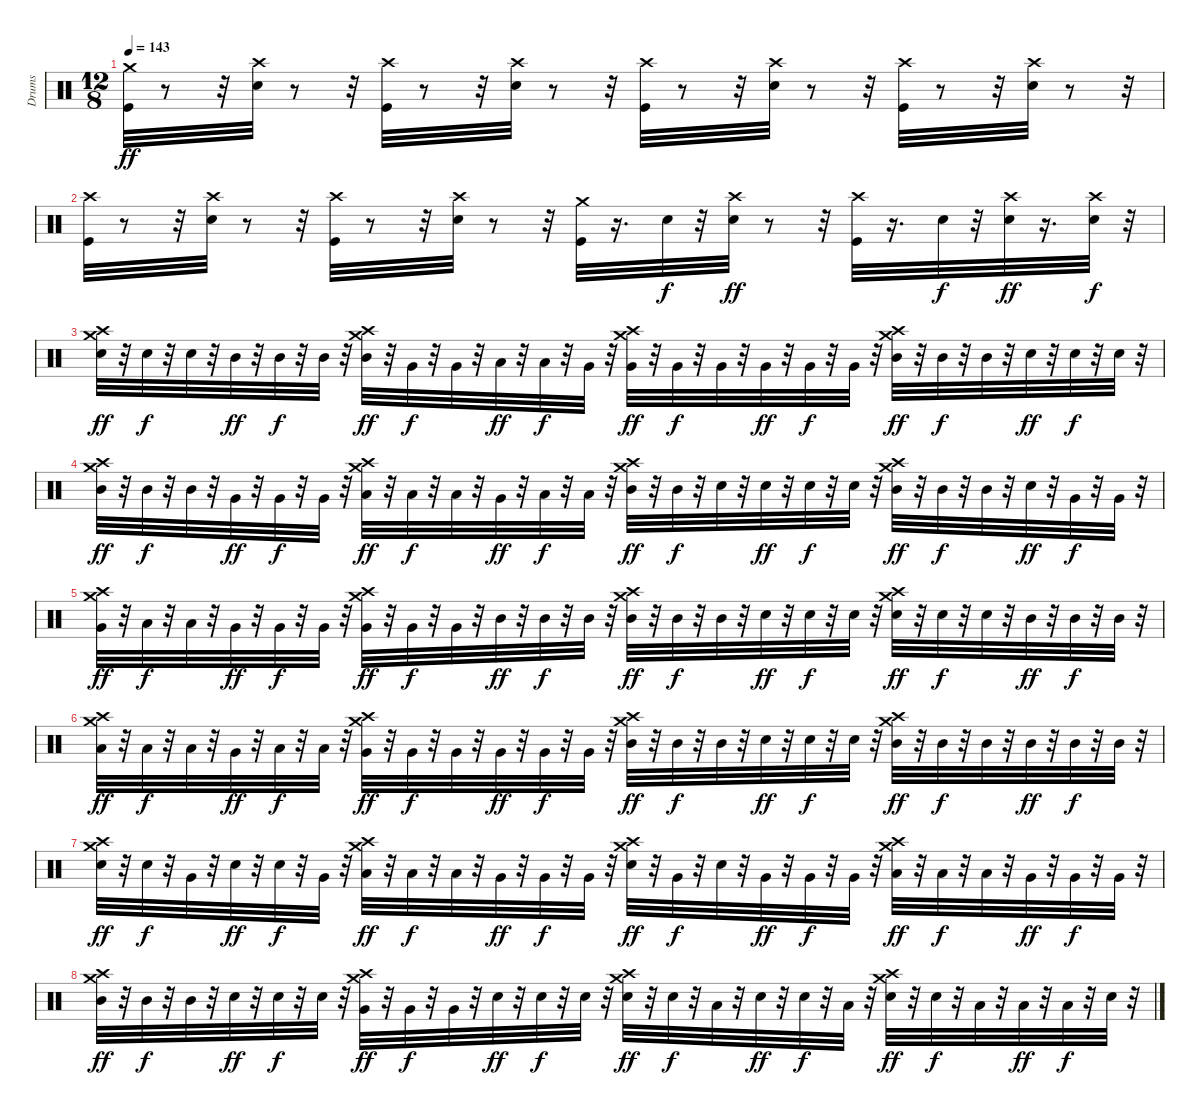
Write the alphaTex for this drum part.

\track ("Drums" "Drums") {instrument percussion}
\staff {score}
\articulation defaults
\ts (12 8)
\tempo 143
\clef neutral
\ks c
("Crash medium (hit)" "Kick (hit)").32{dy ff} r.8 r.32 ("Crash high (hit)" "Snare (hit) 2").32 r.8 r.32 ("Crash high (hit)" "Kick (hit)").32 r.8 r.32 ("Crash high (hit)" "Snare (hit) 2").32 r.8 r.32 ("Crash high (hit)" "Kick (hit)").32 r.8 r.32 ("Crash high (hit)" "Snare (hit) 2").32 r.8 r.32 ("Crash high (hit)" "Kick (hit)").32 r.8 r.32 ("Crash high (hit)" "Snare (hit) 2").32 r.8 r.32 |
("Crash high (hit)" "Kick (hit)").32 r.8 r.32 ("Crash high (hit)" "Snare (hit) 2").32 r.8 r.32 ("Crash high (hit)" "Kick (hit)").32 r.8 r.32 ("Crash high (hit)" "Snare (hit) 2").32 r.8 r.32 ("Crash medium (hit)" "Kick (hit)").32 r.16{d} "Snare (hit) 2".32{dy f} r.32 ("Crash high (hit)" "Snare (hit) 2").32{dy ff} r.8 r.32 ("Crash high (hit)" "Kick (hit)").32 r.16{d} "Electric Snare (hit)".32{dy f} r.32 ("Crash high (hit)" "Snare (hit) 2").32{dy ff} r.16{d} ("Electric Snare (hit)" "Crash high (hit)").32{dy f} r.32 |
("Snare (hit) 2" "Crash medium (hit)" "Crash high (hit)").32{dy ff} r.32 "Electric Snare (hit)".32{dy f} r.32 "Electric Snare (hit)".32 r.32 "Mid Tom (hit)".32{dy ff} r.32 "Mid Tom (hit)".32{dy f} r.32 "Mid Tom (hit)".32 r.32 ("Mid Tom (hit)" "Crash high (hit)" "Crash medium (hit)").32{dy ff} r.32 "Very Low Tom (hit)".32{dy f} r.32 "Very Low Tom (hit)".32 r.32 "Low Floor Tom (hit)".32{dy ff} r.32 "Low Floor Tom (hit)".32{dy f} r.32 "Very Low Tom (hit)".32 r.32 ("Very Low Tom (hit)" "Crash medium (hit)" "Crash high (hit)").32{dy ff} r.32 "Very Low Tom (hit)".32{dy f} r.32 "Very Low Tom (hit)".32 r.32 "Very Low Tom (hit)".32{dy ff} r.32 "Very Low Tom (hit)".32{dy f} r.32 "Very Low Tom (hit)".32 r.32 ("Mid Tom (hit)" "Crash high (hit)" "Crash medium (hit)").32{dy ff} r.32 "Mid Tom (hit)".32{dy f} r.32 "Mid Tom (hit)".32 r.32 "Electric Snare (hit)".32{dy ff} r.32 "Electric Snare (hit)".32{dy f} r.32 "Electric Snare (hit)".32 r.32 |
("Mid Tom (hit)" "Crash medium (hit)" "Crash high (hit)").32{dy ff} r.32 "Mid Tom (hit)".32{dy f} r.32 "Mid Tom (hit)".32 r.32 "Very Low Tom (hit)".32{dy ff} r.32 "Very Low Tom (hit)".32{dy f} r.32 "Very Low Tom (hit)".32 r.32 ("Low Floor Tom (hit)" "Crash high (hit)" "Crash medium (hit)").32{dy ff} r.32 "Low Floor Tom (hit)".32{dy f} r.32 "Low Floor Tom (hit)".32 r.32 "Very Low Tom (hit)".32{dy ff} r.32 "Low Floor Tom (hit)".32{dy f} r.32 "Low Floor Tom (hit)".32 r.32 ("Mid Tom (hit)" "Crash medium (hit)" "Crash high (hit)").32{dy ff} r.32 "Mid Tom (hit)".32{dy f} r.32 "Electric Snare (hit)".32 r.32 "Electric Snare (hit)".32{dy ff} r.32 "Electric Snare (hit)".32{dy f} r.32 "Electric Snare (hit)".32 r.32 ("Mid Tom (hit)" "Crash high (hit)" "Crash medium (hit)").32{dy ff} r.32 "Mid Tom (hit)".32{dy f} r.32 "Mid Tom (hit)".32 r.32 "Electric Snare (hit)".32{dy ff} r.32 "Very Low Tom (hit)".32{dy f} r.32 "Very Low Tom (hit)".32 r.32 |
("Very Low Tom (hit)" "Crash medium (hit)" "Crash high (hit)").32{dy ff} r.32 "Low Floor Tom (hit)".32{dy f} r.32 "Low Floor Tom (hit)".32 r.32 "Very Low Tom (hit)".32{dy ff} r.32 "Very Low Tom (hit)".32{dy f} r.32 "Very Low Tom (hit)".32 r.32 ("Very Low Tom (hit)" "Crash high (hit)" "Crash medium (hit)").32{dy ff} r.32 "Very Low Tom (hit)".32{dy f} r.32 "Very Low Tom (hit)".32 r.32 "Mid Tom (hit)".32{dy ff} r.32 "Mid Tom (hit)".32{dy f} r.32 "Mid Tom (hit)".32 r.32 ("Mid Tom (hit)" "Crash medium (hit)" "Crash high (hit)").32{dy ff} r.32 "Mid Tom (hit)".32{dy f} r.32 "Mid Tom (hit)".32 r.32 "Snare (hit) 2".32{dy ff} r.32 "Electric Snare (hit)".32{dy f} r.32 "Electric Snare (hit)".32 r.32 ("Electric Snare (hit)" "Crash high (hit)" "Crash medium (hit)").32{dy ff} r.32 "Electric Snare (hit)".32{dy f} r.32 "Electric Snare (hit)".32 r.32 "Mid Tom (hit)".32{dy ff} r.32 "Mid Tom (hit)".32{dy f} r.32 "Mid Tom (hit)".32 r.32 |
("Low Floor Tom (hit)" "Crash medium (hit)" "Crash high (hit)").32{dy ff} r.32 "Low Floor Tom (hit)".32{dy f} r.32 "Low Floor Tom (hit)".32 r.32 "Very Low Tom (hit)".32{dy ff} r.32 "Low Floor Tom (hit)".32{dy f} r.32 "Low Floor Tom (hit)".32 r.32 ("Very Low Tom (hit)" "Crash high (hit)" "Crash medium (hit)").32{dy ff} r.32 "Very Low Tom (hit)".32{dy f} r.32 "Very Low Tom (hit)".32 r.32 "Very Low Tom (hit)".32{dy ff} r.32 "Very Low Tom (hit)".32{dy f} r.32 "Very Low Tom (hit)".32 r.32 ("Mid Tom (hit)" "Crash medium (hit)" "Crash high (hit)").32{dy ff} r.32 "Mid Tom (hit)".32{dy f} r.32 "Mid Tom (hit)".32 r.32 "Snare (hit) 2".32{dy ff} r.32 "Snare (hit) 2".32{dy f} r.32 "Snare (hit) 2".32 r.32 ("Mid Tom (hit)" "Crash high (hit)" "Crash medium (hit)").32{dy ff} r.32 "Mid Tom (hit)".32{dy f} r.32 "Mid Tom (hit)".32 r.32 "Mid Tom (hit)".32{dy ff} r.32 "Mid Tom (hit)".32{dy f} r.32 "Mid Tom (hit)".32 r.32 |
("Electric Snare (hit)" "Crash medium (hit)" "Crash high (hit)").32{dy ff} r.32 "Electric Snare (hit)".32{dy f} r.32 "Very Low Tom (hit)".32 r.32 "Snare (hit) 2".32{dy ff} r.32 "Snare (hit) 2".32{dy f} r.32 "Very Low Tom (hit)".32 r.32 ("Low Floor Tom (hit)" "Crash high (hit)" "Crash medium (hit)").32{dy ff} r.32 "Low Floor Tom (hit)".32{dy f} r.32 "Low Floor Tom (hit)".32 r.32 "Very Low Tom (hit)".32{dy ff} r.32 "Very Low Tom (hit)".32{dy f} r.32 "Very Low Tom (hit)".32 r.32 ("Snare (hit) 2" "Crash medium (hit)" "Crash high (hit)").32{dy ff} r.32 "Very Low Tom (hit)".32{dy f} r.32 "Electric Snare (hit)".32 r.32 "Very Low Tom (hit)".32{dy ff} r.32 "Very Low Tom (hit)".32{dy f} r.32 "Very Low Tom (hit)".32 r.32 ("Low Floor Tom (hit)" "Crash high (hit)" "Crash medium (hit)").32{dy ff} r.32 "Low Floor Tom (hit)".32{dy f} r.32 "Low Floor Tom (hit)".32 r.32 "Very Low Tom (hit)".32{dy ff} r.32 "Very Low Tom (hit)".32{dy f} r.32 "Very Low Tom (hit)".32 r.32 |
("Mid Tom (hit)" "Crash medium (hit)" "Crash high (hit)").32{dy ff} r.32 "Mid Tom (hit)".32{dy f} r.32 "Mid Tom (hit)".32 r.32 "Snare (hit) 2".32{dy ff} r.32 "Snare (hit) 2".32{dy f} r.32 "Snare (hit) 2".32 r.32 ("Very Low Tom (hit)" "Crash high (hit)" "Crash medium (hit)").32{dy ff} r.32 "Very Low Tom (hit)".32{dy f} r.32 "Very Low Tom (hit)".32 r.32 "Snare (hit) 2".32{dy ff} r.32 "Snare (hit) 2".32{dy f} r.32 "Snare (hit) 2".32 r.32 ("Electric Snare (hit)" "Crash medium (hit)" "Crash high (hit)").32{dy ff} r.32 "Snare (hit) 2".32{dy f} r.32 "Low Floor Tom (hit)".32 r.32 "Snare (hit) 2".32{dy ff} r.32 "Snare (hit) 2".32{dy f} r.32 "Low Floor Tom (hit)".32 r.32 ("Snare (hit) 2" "Crash high (hit)" "Crash medium (hit)").32{dy ff} r.32 "Snare (hit) 2".32{dy f} r.32 "Low Floor Tom (hit)".32 r.32 "Low Floor Tom (hit)".32{dy ff} r.32 "Low Floor Tom (hit)".32{dy f} r.32 "Snare (hit) 2".32 r.32
